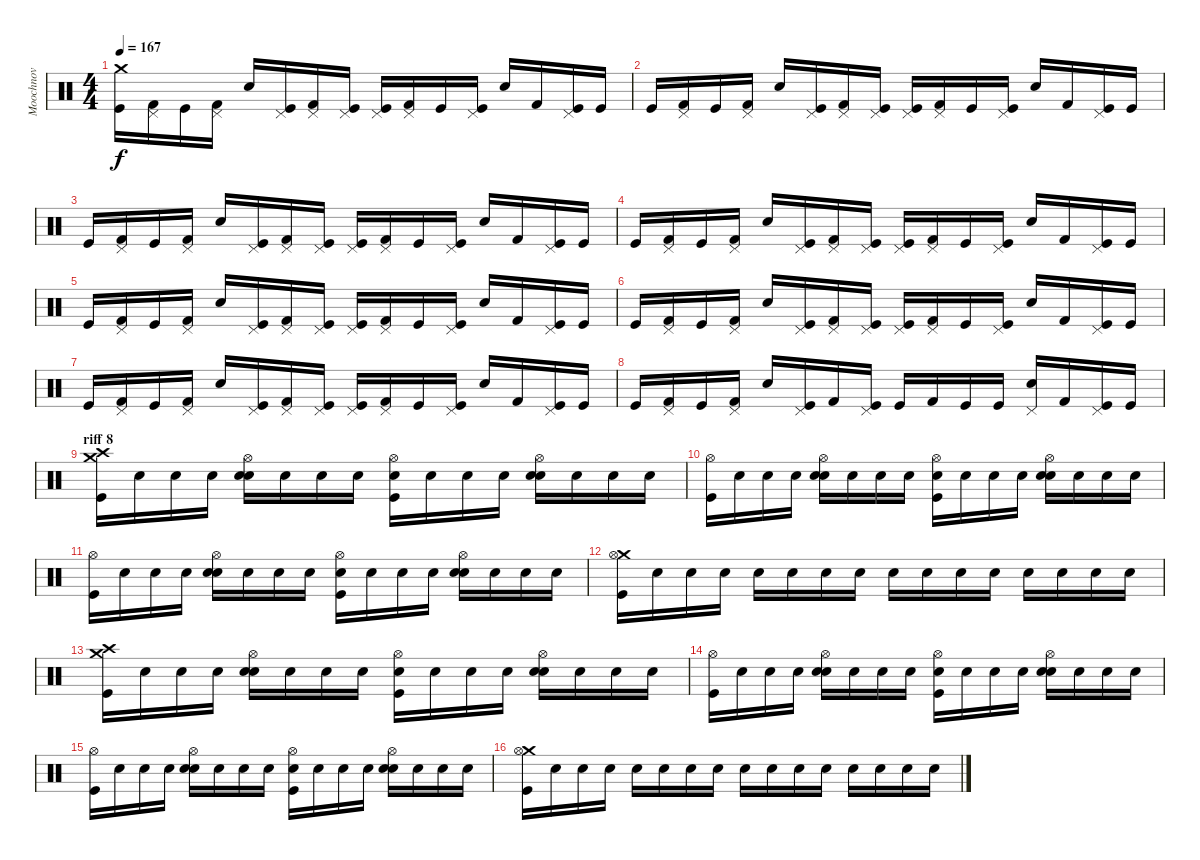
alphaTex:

\track ("Moochnov" "Moochnov") {instrument percussion}
\staff {score}
\articulation defaults
\ts (4 4)
\tempo 167
\clef neutral
\ks c
("Kick (hit)" "Crash medium (hit)").16{dy f} ("Kick (hit) 2" "Pedal Hi-Hat (hit)").16 "Kick (hit)".16 ("Kick (hit) 2" "Pedal Hi-Hat (hit)").16 "Snare (hit) 2".16 ("Kick (hit)" "Pedal Hi-Hat (hit)").16 ("Kick (hit) 2" "Pedal Hi-Hat (hit)").16 ("Kick (hit)" "Pedal Hi-Hat (hit)").16 ("Kick (hit)" "Pedal Hi-Hat (hit)").16 ("Kick (hit) 2" "Pedal Hi-Hat (hit)").16 "Kick (hit)".16 ("Kick (hit)" "Pedal Hi-Hat (hit)").16 "Snare (hit) 2".16 "Kick (hit) 2".16 ("Kick (hit)" "Pedal Hi-Hat (hit)").16 "Kick (hit)".16 |
"Kick (hit)".16 ("Kick (hit) 2" "Pedal Hi-Hat (hit)").16 "Kick (hit)".16 ("Kick (hit) 2" "Pedal Hi-Hat (hit)").16 "Snare (hit) 2".16 ("Kick (hit)" "Pedal Hi-Hat (hit)").16 ("Kick (hit) 2" "Pedal Hi-Hat (hit)").16 ("Kick (hit)" "Pedal Hi-Hat (hit)").16 ("Kick (hit)" "Pedal Hi-Hat (hit)").16 ("Kick (hit) 2" "Pedal Hi-Hat (hit)").16 "Kick (hit)".16 ("Kick (hit)" "Pedal Hi-Hat (hit)").16 "Snare (hit) 2".16 "Kick (hit) 2".16 ("Kick (hit)" "Pedal Hi-Hat (hit)").16 "Kick (hit)".16 |
"Kick (hit)".16 ("Kick (hit) 2" "Pedal Hi-Hat (hit)").16 "Kick (hit)".16 ("Kick (hit) 2" "Pedal Hi-Hat (hit)").16 "Snare (hit) 2".16 ("Kick (hit)" "Pedal Hi-Hat (hit)").16 ("Kick (hit) 2" "Pedal Hi-Hat (hit)").16 ("Kick (hit)" "Pedal Hi-Hat (hit)").16 ("Kick (hit)" "Pedal Hi-Hat (hit)").16 ("Kick (hit) 2" "Pedal Hi-Hat (hit)").16 "Kick (hit)".16 ("Kick (hit)" "Pedal Hi-Hat (hit)").16 "Snare (hit) 2".16 "Kick (hit) 2".16 ("Kick (hit)" "Pedal Hi-Hat (hit)").16 "Kick (hit)".16 |
"Kick (hit)".16 ("Kick (hit) 2" "Pedal Hi-Hat (hit)").16 "Kick (hit)".16 ("Kick (hit) 2" "Pedal Hi-Hat (hit)").16 "Snare (hit) 2".16 ("Kick (hit)" "Pedal Hi-Hat (hit)").16 ("Kick (hit) 2" "Pedal Hi-Hat (hit)").16 ("Kick (hit)" "Pedal Hi-Hat (hit)").16 ("Kick (hit)" "Pedal Hi-Hat (hit)").16 ("Kick (hit) 2" "Pedal Hi-Hat (hit)").16 "Kick (hit)".16 ("Kick (hit)" "Pedal Hi-Hat (hit)").16 "Snare (hit) 2".16 "Kick (hit) 2".16 ("Kick (hit)" "Pedal Hi-Hat (hit)").16 "Kick (hit)".16 |
"Kick (hit)".16 ("Kick (hit) 2" "Pedal Hi-Hat (hit)").16 "Kick (hit)".16 ("Kick (hit) 2" "Pedal Hi-Hat (hit)").16 "Snare (hit) 2".16 ("Kick (hit)" "Pedal Hi-Hat (hit)").16 ("Kick (hit) 2" "Pedal Hi-Hat (hit)").16 ("Kick (hit)" "Pedal Hi-Hat (hit)").16 ("Kick (hit)" "Pedal Hi-Hat (hit)").16 ("Kick (hit) 2" "Pedal Hi-Hat (hit)").16 "Kick (hit)".16 ("Kick (hit)" "Pedal Hi-Hat (hit)").16 "Snare (hit) 2".16 "Kick (hit) 2".16 ("Kick (hit)" "Pedal Hi-Hat (hit)").16 "Kick (hit)".16 |
"Kick (hit)".16 ("Kick (hit) 2" "Pedal Hi-Hat (hit)").16 "Kick (hit)".16 ("Kick (hit) 2" "Pedal Hi-Hat (hit)").16 "Snare (hit) 2".16 ("Kick (hit)" "Pedal Hi-Hat (hit)").16 ("Kick (hit) 2" "Pedal Hi-Hat (hit)").16 ("Kick (hit)" "Pedal Hi-Hat (hit)").16 ("Kick (hit)" "Pedal Hi-Hat (hit)").16 ("Kick (hit) 2" "Pedal Hi-Hat (hit)").16 "Kick (hit)".16 ("Kick (hit)" "Pedal Hi-Hat (hit)").16 "Snare (hit) 2".16 "Kick (hit) 2".16 ("Kick (hit)" "Pedal Hi-Hat (hit)").16 "Kick (hit)".16 |
"Kick (hit)".16 ("Kick (hit) 2" "Pedal Hi-Hat (hit)").16 "Kick (hit)".16 ("Kick (hit) 2" "Pedal Hi-Hat (hit)").16 "Snare (hit) 2".16 ("Kick (hit)" "Pedal Hi-Hat (hit)").16 ("Kick (hit) 2" "Pedal Hi-Hat (hit)").16 ("Kick (hit)" "Pedal Hi-Hat (hit)").16 ("Kick (hit)" "Pedal Hi-Hat (hit)").16 ("Kick (hit) 2" "Pedal Hi-Hat (hit)").16 "Kick (hit)".16 ("Kick (hit)" "Pedal Hi-Hat (hit)").16 "Snare (hit) 2".16 "Kick (hit) 2".16 ("Kick (hit)" "Pedal Hi-Hat (hit)").16 "Kick (hit)".16 |
"Kick (hit)".16 ("Kick (hit) 2" "Pedal Hi-Hat (hit)").16 "Kick (hit)".16 ("Kick (hit) 2" "Pedal Hi-Hat (hit)").16 "Snare (hit) 2".16 ("Kick (hit)" "Pedal Hi-Hat (hit)").16 "Kick (hit) 2".16 ("Kick (hit)" "Pedal Hi-Hat (hit)").16 "Kick (hit)".16 "Kick (hit) 2".16 "Kick (hit)".16 "Kick (hit)".16 ("Snare (hit) 2" "Pedal Hi-Hat (hit)").16 "Kick (hit) 2".16 ("Kick (hit)" "Pedal Hi-Hat (hit)").16 "Kick (hit)".16 |
\section ("" "riff 8")
("Kick (hit)" "Crash medium (hit)" "Crash high (hit)").16 "Snare (hit)"{x}.16 "Snare (hit)"{x}.16 "Snare (hit)"{x}.16 ("Snare (hit) 2" "Snare (hit)"{x} "Hi-Hat (open)").16 "Snare (hit)"{x}.16 "Snare (hit)"{x}.16 "Snare (hit)"{x}.16 ("Kick (hit)" "Snare (hit)"{x} "Hi-Hat (open)").16 "Snare (hit)"{x}.16 "Snare (hit)"{x}.16 "Snare (hit)"{x}.16 ("Snare (hit) 2" "Snare (hit)"{x} "Hi-Hat (open)").16 "Snare (hit)"{x}.16 "Snare (hit)"{x}.16 "Snare (hit)"{x}.16 |
("Kick (hit)" "Hi-Hat (open)").16 "Snare (hit)"{x}.16 "Snare (hit)"{x}.16 "Snare (hit)"{x}.16 ("Snare (hit) 2" "Snare (hit)"{x} "Hi-Hat (open)").16 "Snare (hit)"{x}.16 "Snare (hit)"{x}.16 "Snare (hit)"{x}.16 ("Kick (hit)" "Snare (hit)"{x} "Hi-Hat (open)").16 "Snare (hit)"{x}.16 "Snare (hit)"{x}.16 "Snare (hit)"{x}.16 ("Snare (hit) 2" "Snare (hit)"{x} "Hi-Hat (open)").16 "Snare (hit)"{x}.16 "Snare (hit)"{x}.16 "Snare (hit)"{x}.16 |
("Kick (hit)" "Hi-Hat (open)").16 "Snare (hit)"{x}.16 "Snare (hit)"{x}.16 "Snare (hit)"{x}.16 ("Snare (hit) 2" "Snare (hit)"{x} "Hi-Hat (open)").16 "Snare (hit)"{x}.16 "Snare (hit)"{x}.16 "Snare (hit)"{x}.16 ("Kick (hit)" "Snare (hit)"{x} "Hi-Hat (open)").16 "Snare (hit)"{x}.16 "Snare (hit)"{x}.16 "Snare (hit)"{x}.16 ("Snare (hit) 2" "Snare (hit)"{x} "Hi-Hat (open)").16 "Snare (hit)"{x}.16 "Snare (hit)"{x}.16 "Snare (hit)"{x}.16 |
("Kick (hit)" "Crash medium (hit)" "Hi-Hat (open)").16 "Snare (hit)"{x}.16 "Snare (hit)"{x}.16 "Snare (hit)"{x}.16 "Snare (hit)"{x}.16 "Snare (hit)"{x}.16 "Snare (hit)"{x}.16 "Snare (hit)"{x}.16 "Snare (hit)"{x}.16 "Snare (hit)"{x}.16 "Snare (hit)"{x}.16 "Snare (hit)"{x}.16 "Snare (hit)"{x}.16 "Snare (hit)"{x}.16 "Snare (hit)"{x}.16 "Snare (hit)"{x}.16 |
("Kick (hit)" "Crash medium (hit)" "Crash high (hit)").16 "Snare (hit)"{x}.16 "Snare (hit)"{x}.16 "Snare (hit)"{x}.16 ("Snare (hit) 2" "Snare (hit)"{x} "Hi-Hat (open)").16 "Snare (hit)"{x}.16 "Snare (hit)"{x}.16 "Snare (hit)"{x}.16 ("Kick (hit)" "Snare (hit)"{x} "Hi-Hat (open)").16 "Snare (hit)"{x}.16 "Snare (hit)"{x}.16 "Snare (hit)"{x}.16 ("Snare (hit) 2" "Snare (hit)"{x} "Hi-Hat (open)").16 "Snare (hit)"{x}.16 "Snare (hit)"{x}.16 "Snare (hit)"{x}.16 |
("Kick (hit)" "Hi-Hat (open)").16 "Snare (hit)"{x}.16 "Snare (hit)"{x}.16 "Snare (hit)"{x}.16 ("Snare (hit) 2" "Snare (hit)"{x} "Hi-Hat (open)").16 "Snare (hit)"{x}.16 "Snare (hit)"{x}.16 "Snare (hit)"{x}.16 ("Kick (hit)" "Snare (hit)"{x} "Hi-Hat (open)").16 "Snare (hit)"{x}.16 "Snare (hit)"{x}.16 "Snare (hit)"{x}.16 ("Snare (hit) 2" "Snare (hit)"{x} "Hi-Hat (open)").16 "Snare (hit)"{x}.16 "Snare (hit)"{x}.16 "Snare (hit)"{x}.16 |
("Kick (hit)" "Hi-Hat (open)").16 "Snare (hit)"{x}.16 "Snare (hit)"{x}.16 "Snare (hit)"{x}.16 ("Snare (hit) 2" "Snare (hit)"{x} "Hi-Hat (open)").16 "Snare (hit)"{x}.16 "Snare (hit)"{x}.16 "Snare (hit)"{x}.16 ("Kick (hit)" "Snare (hit)"{x} "Hi-Hat (open)").16 "Snare (hit)"{x}.16 "Snare (hit)"{x}.16 "Snare (hit)"{x}.16 ("Snare (hit) 2" "Snare (hit)"{x} "Hi-Hat (open)").16 "Snare (hit)"{x}.16 "Snare (hit)"{x}.16 "Snare (hit)"{x}.16 |
("Kick (hit)" "Crash medium (hit)" "Hi-Hat (open)").16 "Snare (hit)"{x}.16 "Snare (hit)"{x}.16 "Snare (hit)"{x}.16 "Snare (hit)"{x}.16 "Snare (hit)"{x}.16 "Snare (hit)"{x}.16 "Snare (hit)"{x}.16 "Snare (hit)"{x}.16 "Snare (hit)"{x}.16 "Snare (hit)"{x}.16 "Snare (hit)"{x}.16 "Snare (hit)"{x}.16 "Snare (hit)"{x}.16 "Snare (hit)"{x}.16 "Snare (hit)"{x}.16
